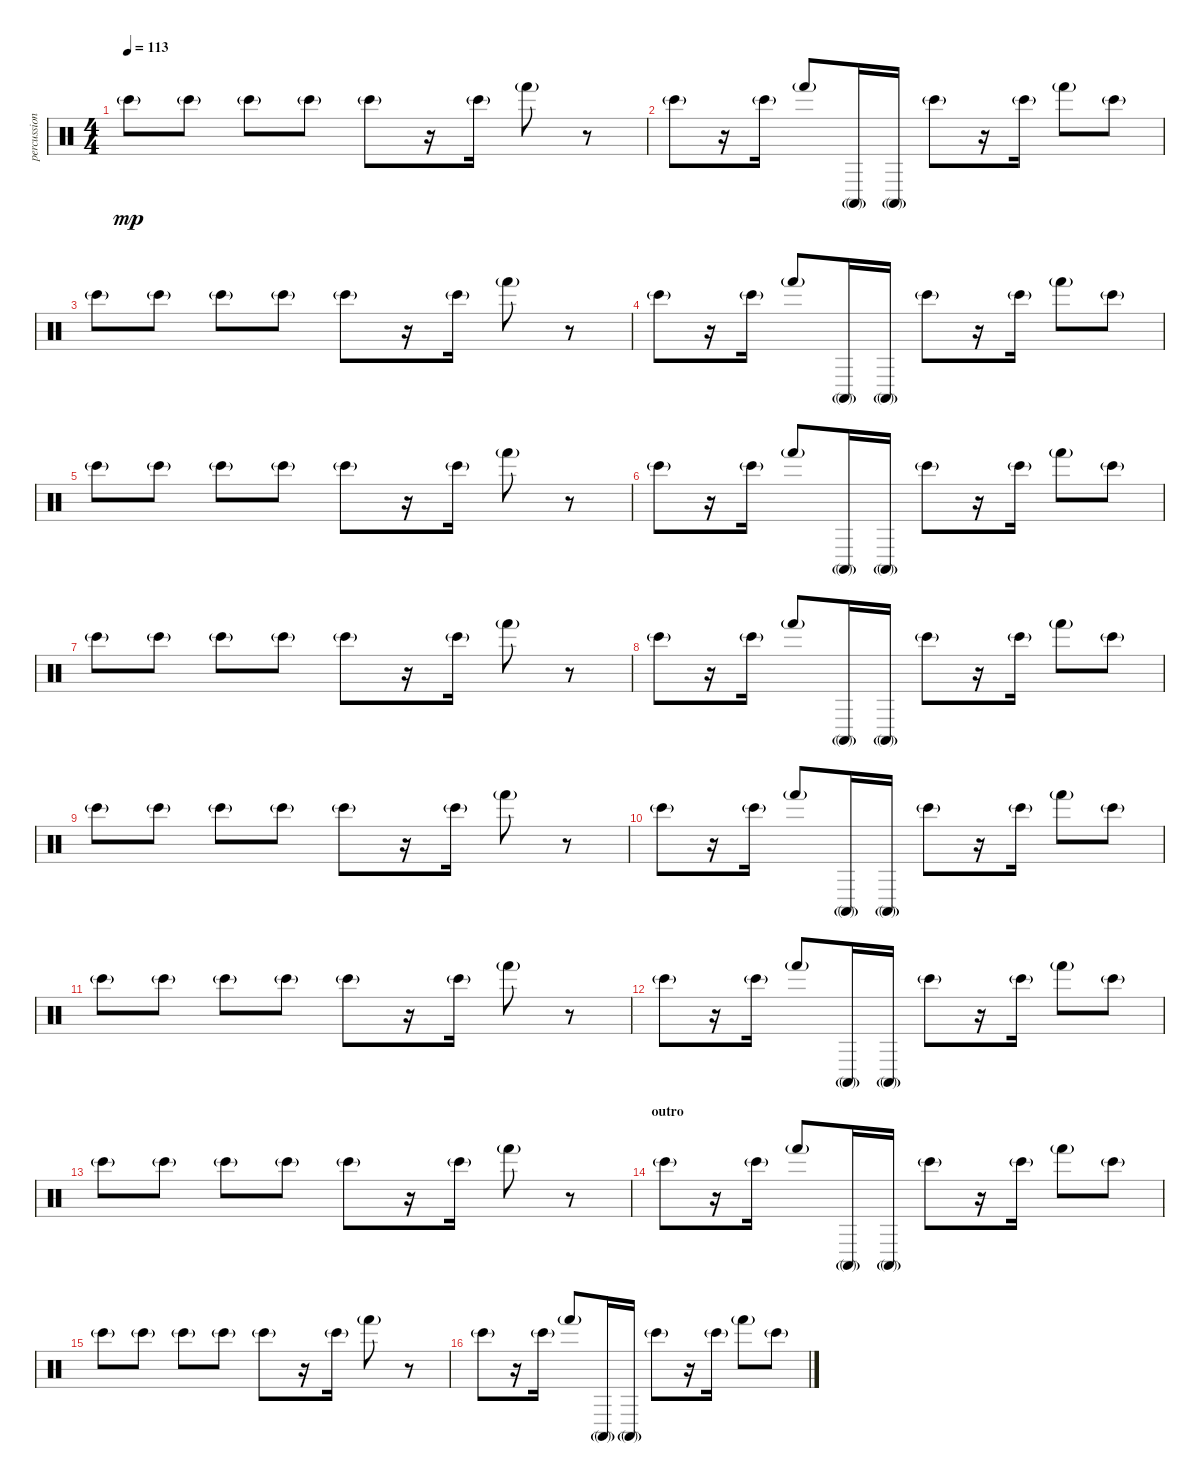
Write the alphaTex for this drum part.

\track ("percussion" "percussion") {instrument percussion}
\staff {score}
\articulation defaults
\ts (4 4)
\tempo 113
\clef neutral
\ks c "Bongo High (hit)"{g}.8{dy mp} "Bongo High (hit)"{g}.8 "Bongo High (hit)"{g}.8 "Bongo High (hit)"{g}.8 "Bongo High (hit)"{g}.8
r.16 "Bongo High (hit)"{g}.16 "Hand (hit)"{g}.8 r.8 |
"Bongo High (hit)"{g}.8 r.16 "Bongo High (hit)"{g}.16 "Hand (hit)"{g}.8 "Conga high (mute)"{g}.16 "Conga high (mute)"{g}.16 "Bongo High (hit)"{g}.8 r.16 "Bongo High (hit)"{g}.16 "Hand (hit)"{g}.8 "Bongo High (hit)"{g}.8 |
"Bongo High (hit)"{g}.8 "Bongo High (hit)"{g}.8 "Bongo High (hit)"{g}.8 "Bongo High (hit)"{g}.8 "Bongo High (hit)"{g}.8 r.16 "Bongo High (hit)"{g}.16 "Hand (hit)"{g}.8 r.8 |
"Bongo High (hit)"{g}.8 r.16 "Bongo High (hit)"{g}.16 "Hand (hit)"{g}.8 "Conga high (mute)"{g}.16 "Conga high (mute)"{g}.16 "Bongo High (hit)"{g}.8 r.16 "Bongo High (hit)"{g}.16 "Hand (hit)"{g}.8 "Bongo High (hit)"{g}.8 |
"Bongo High (hit)"{g}.8 "Bongo High (hit)"{g}.8 "Bongo High (hit)"{g}.8 "Bongo High (hit)"{g}.8 "Bongo High (hit)"{g}.8 r.16 "Bongo High (hit)"{g}.16 "Hand (hit)"{g}.8 r.8 |
"Bongo High (hit)"{g}.8 r.16 "Bongo High (hit)"{g}.16 "Hand (hit)"{g}.8 "Conga high (mute)"{g}.16 "Conga high (mute)"{g}.16 "Bongo High (hit)"{g}.8 r.16 "Bongo High (hit)"{g}.16 "Hand (hit)"{g}.8 "Bongo High (hit)"{g}.8 |
"Bongo High (hit)"{g}.8 "Bongo High (hit)"{g}.8 "Bongo High (hit)"{g}.8 "Bongo High (hit)"{g}.8 "Bongo High (hit)"{g}.8 r.16 "Bongo High (hit)"{g}.16 "Hand (hit)"{g}.8 r.8 |
"Bongo High (hit)"{g}.8 r.16 "Bongo High (hit)"{g}.16 "Hand (hit)"{g}.8 "Conga high (mute)"{g}.16 "Conga high (mute)"{g}.16 "Bongo High (hit)"{g}.8 r.16 "Bongo High (hit)"{g}.16 "Hand (hit)"{g}.8 "Bongo High (hit)"{g}.8 |
"Bongo High (hit)"{g}.8 "Bongo High (hit)"{g}.8 "Bongo High (hit)"{g}.8 "Bongo High (hit)"{g}.8 "Bongo High (hit)"{g}.8 r.16 "Bongo High (hit)"{g}.16 "Hand (hit)"{g}.8 r.8 |
"Bongo High (hit)"{g}.8 r.16 "Bongo High (hit)"{g}.16 "Hand (hit)"{g}.8 "Conga high (mute)"{g}.16 "Conga high (mute)"{g}.16 "Bongo High (hit)"{g}.8 r.16 "Bongo High (hit)"{g}.16 "Hand (hit)"{g}.8 "Bongo High (hit)"{g}.8 |
"Bongo High (hit)"{g}.8 "Bongo High (hit)"{g}.8 "Bongo High (hit)"{g}.8 "Bongo High (hit)"{g}.8 "Bongo High (hit)"{g}.8 r.16 "Bongo High (hit)"{g}.16 "Hand (hit)"{g}.8 r.8 |
"Bongo High (hit)"{g}.8 r.16 "Bongo High (hit)"{g}.16 "Hand (hit)"{g}.8 "Conga high (mute)"{g}.16 "Conga high (mute)"{g}.16 "Bongo High (hit)"{g}.8 r.16 "Bongo High (hit)"{g}.16 "Hand (hit)"{g}.8 "Bongo High (hit)"{g}.8 |
"Bongo High (hit)"{g}.8 "Bongo High (hit)"{g}.8 "Bongo High (hit)"{g}.8 "Bongo High (hit)"{g}.8 "Bongo High (hit)"{g}.8 r.16 "Bongo High (hit)"{g}.16 "Hand (hit)"{g}.8 r.8 |
\section ("" "outro")
"Bongo High (hit)"{g}.8 r.16 "Bongo High (hit)"{g}.16 "Hand (hit)"{g}.8 "Conga high (mute)"{g}.16 "Conga high (mute)"{g}.16 "Bongo High (hit)"{g}.8 r.16 "Bongo High (hit)"{g}.16 "Hand (hit)"{g}.8 "Bongo High (hit)"{g}.8 |
"Bongo High (hit)"{g}.8 "Bongo High (hit)"{g}.8 "Bongo High (hit)"{g}.8 "Bongo High (hit)"{g}.8 "Bongo High (hit)"{g}.8 r.16 "Bongo High (hit)"{g}.16 "Hand (hit)"{g}.8 r.8 |
"Bongo High (hit)"{g}.8 r.16 "Bongo High (hit)"{g}.16 "Hand (hit)"{g}.8 "Conga high (mute)"{g}.16 "Conga high (mute)"{g}.16 "Bongo High (hit)"{g}.8 r.16 "Bongo High (hit)"{g}.16 "Hand (hit)"{g}.8 "Bongo High (hit)"{g}.8
